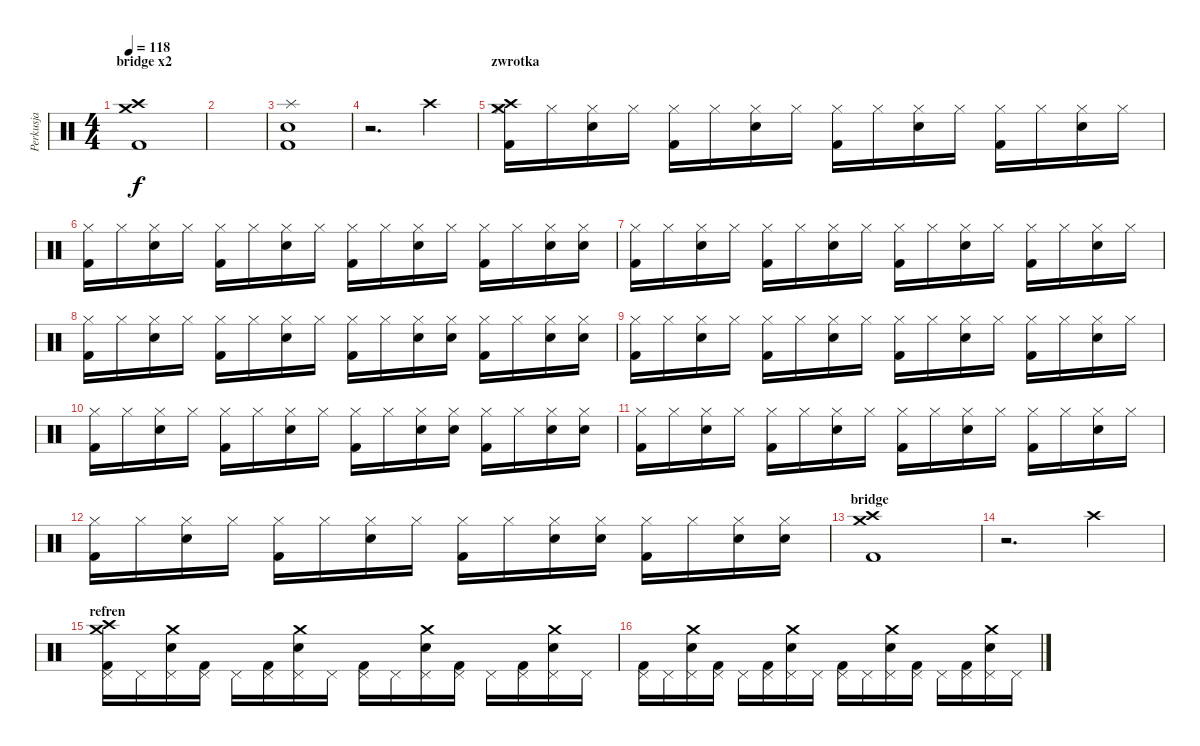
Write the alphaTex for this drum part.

\track ("Perkusja" "Perkusja") {instrument percussion}
\staff {score}
\articulation defaults
\ts (4 4)
\section ("" "bridge x2")
\tempo 118
\clef neutral
\ks c
("Crash medium (hit)" "Crash high (hit)" "Kick (hit) 2").1{dy f} |
|
("Splash (hit)" "Snare (hit) 2" "Kick (hit) 2").1 |
r.2{d} "Crash high (hit)".4 |
\section ("" "zwrotka")
("Crash medium (hit)" "Crash high (hit)" "Kick (hit) 2" "Hi-Hat (closed)").16 "Hi-Hat (closed)".16 ("Electric Snare (hit)" "Hi-Hat (closed)").16 "Hi-Hat (closed)".16 ("Kick (hit) 2" "Hi-Hat (closed)").16 "Hi-Hat (closed)".16 ("Electric Snare (hit)" "Hi-Hat (closed)").16 "Hi-Hat (closed)".16 ("Kick (hit) 2" "Hi-Hat (closed)").16 "Hi-Hat (closed)".16 ("Electric Snare (hit)" "Hi-Hat (closed)").16 "Hi-Hat (closed)".16 ("Kick (hit) 2" "Hi-Hat (closed)").16 "Hi-Hat (closed)".16 ("Electric Snare (hit)" "Hi-Hat (closed)").16 "Hi-Hat (closed)".16 |
("Kick (hit) 2" "Hi-Hat (closed)").16 "Hi-Hat (closed)".16 ("Electric Snare (hit)" "Hi-Hat (closed)").16 "Hi-Hat (closed)".16 ("Kick (hit) 2" "Hi-Hat (closed)").16 "Hi-Hat (closed)".16 ("Electric Snare (hit)" "Hi-Hat (closed)").16 "Hi-Hat (closed)".16 ("Kick (hit) 2" "Hi-Hat (closed)").16 "Hi-Hat (closed)".16 ("Electric Snare (hit)" "Hi-Hat (closed)").16 "Hi-Hat (closed)".16 ("Kick (hit) 2" "Hi-Hat (closed)").16 "Hi-Hat (closed)".16 ("Electric Snare (hit)" "Hi-Hat (closed)").16 ("Electric Snare (hit)" "Hi-Hat (closed)").16 |
("Kick (hit) 2" "Hi-Hat (closed)").16 "Hi-Hat (closed)".16 ("Electric Snare (hit)" "Hi-Hat (closed)").16 "Hi-Hat (closed)".16 ("Kick (hit) 2" "Hi-Hat (closed)").16 "Hi-Hat (closed)".16 ("Electric Snare (hit)" "Hi-Hat (closed)").16 "Hi-Hat (closed)".16 ("Kick (hit) 2" "Hi-Hat (closed)").16 "Hi-Hat (closed)".16 ("Electric Snare (hit)" "Hi-Hat (closed)").16 "Hi-Hat (closed)".16 ("Kick (hit) 2" "Hi-Hat (closed)").16 "Hi-Hat (closed)".16 ("Electric Snare (hit)" "Hi-Hat (closed)").16 "Hi-Hat (closed)".16 |
("Kick (hit) 2" "Hi-Hat (closed)").16 "Hi-Hat (closed)".16 ("Electric Snare (hit)" "Hi-Hat (closed)").16 "Hi-Hat (closed)".16 ("Kick (hit) 2" "Hi-Hat (closed)").16 "Hi-Hat (closed)".16 ("Electric Snare (hit)" "Hi-Hat (closed)").16 "Hi-Hat (closed)".16 ("Kick (hit) 2" "Hi-Hat (closed)").16 "Hi-Hat (closed)".16 ("Electric Snare (hit)" "Hi-Hat (closed)").16 ("Electric Snare (hit)" "Hi-Hat (closed)").16 ("Kick (hit) 2" "Hi-Hat (closed)").16 "Hi-Hat (closed)".16 ("Electric Snare (hit)" "Hi-Hat (closed)").16 ("Electric Snare (hit)" "Hi-Hat (closed)").16 |
("Kick (hit) 2" "Hi-Hat (closed)").16 "Hi-Hat (closed)".16 ("Electric Snare (hit)" "Hi-Hat (closed)").16 "Hi-Hat (closed)".16 ("Kick (hit) 2" "Hi-Hat (closed)").16 "Hi-Hat (closed)".16 ("Electric Snare (hit)" "Hi-Hat (closed)").16 "Hi-Hat (closed)".16 ("Kick (hit) 2" "Hi-Hat (closed)").16 "Hi-Hat (closed)".16 ("Electric Snare (hit)" "Hi-Hat (closed)").16 "Hi-Hat (closed)".16 ("Kick (hit) 2" "Hi-Hat (closed)").16 "Hi-Hat (closed)".16 ("Electric Snare (hit)" "Hi-Hat (closed)").16 "Hi-Hat (closed)".16 |
("Kick (hit) 2" "Hi-Hat (closed)").16 "Hi-Hat (closed)".16 ("Electric Snare (hit)" "Hi-Hat (closed)").16 "Hi-Hat (closed)".16 ("Kick (hit) 2" "Hi-Hat (closed)").16 "Hi-Hat (closed)".16 ("Electric Snare (hit)" "Hi-Hat (closed)").16 "Hi-Hat (closed)".16 ("Kick (hit) 2" "Hi-Hat (closed)").16 "Hi-Hat (closed)".16 ("Electric Snare (hit)" "Hi-Hat (closed)").16 ("Electric Snare (hit)" "Hi-Hat (closed)").16 ("Kick (hit) 2" "Hi-Hat (closed)").16 "Hi-Hat (closed)".16 ("Electric Snare (hit)" "Hi-Hat (closed)").16 ("Electric Snare (hit)" "Hi-Hat (closed)").16 |
("Kick (hit) 2" "Hi-Hat (closed)").16 "Hi-Hat (closed)".16 ("Electric Snare (hit)" "Hi-Hat (closed)").16 "Hi-Hat (closed)".16 ("Kick (hit) 2" "Hi-Hat (closed)").16 "Hi-Hat (closed)".16 ("Electric Snare (hit)" "Hi-Hat (closed)").16 "Hi-Hat (closed)".16 ("Kick (hit) 2" "Hi-Hat (closed)").16 "Hi-Hat (closed)".16 ("Electric Snare (hit)" "Hi-Hat (closed)").16 "Hi-Hat (closed)".16 ("Kick (hit) 2" "Hi-Hat (closed)").16 "Hi-Hat (closed)".16 ("Electric Snare (hit)" "Hi-Hat (closed)").16 "Hi-Hat (closed)".16 |
("Kick (hit) 2" "Hi-Hat (closed)").16 "Hi-Hat (closed)".16 ("Electric Snare (hit)" "Hi-Hat (closed)").16 "Hi-Hat (closed)".16 ("Kick (hit) 2" "Hi-Hat (closed)").16 "Hi-Hat (closed)".16 ("Electric Snare (hit)" "Hi-Hat (closed)").16 "Hi-Hat (closed)".16 ("Kick (hit) 2" "Hi-Hat (closed)").16 "Hi-Hat (closed)".16 ("Electric Snare (hit)" "Hi-Hat (closed)").16 ("Electric Snare (hit)" "Hi-Hat (closed)").16 ("Kick (hit) 2" "Hi-Hat (closed)").16 "Hi-Hat (closed)".16 ("Electric Snare (hit)" "Hi-Hat (closed)").16 ("Electric Snare (hit)" "Hi-Hat (closed)").16 |
\section ("" "bridge")
("Crash medium (hit)" "Crash high (hit)" "Kick (hit) 2").1 |
r.2{d} "Crash high (hit)".4 |
\section ("" "refren")
("Crash medium (hit)" "Crash high (hit)" "Kick (hit) 2" "Pedal Hi-Hat (hit)").16 "Pedal Hi-Hat (hit)".16 ("Electric Snare (hit)" "Crash medium (hit)" "Pedal Hi-Hat (hit)").16 ("Kick (hit) 2" "Pedal Hi-Hat (hit)").16 "Pedal Hi-Hat (hit)".16 ("Kick (hit) 2" "Pedal Hi-Hat (hit)").16 ("Electric Snare (hit)" "Crash medium (hit)" "Pedal Hi-Hat (hit)").16 "Pedal Hi-Hat (hit)".16 ("Kick (hit) 2" "Pedal Hi-Hat (hit)").16 "Pedal Hi-Hat (hit)".16 ("Electric Snare (hit)" "Crash medium (hit)" "Pedal Hi-Hat (hit)").16 ("Kick (hit) 2" "Pedal Hi-Hat (hit)").16 "Pedal Hi-Hat (hit)".16 ("Kick (hit) 2" "Pedal Hi-Hat (hit)").16 ("Electric Snare (hit)" "Crash medium (hit)" "Pedal Hi-Hat (hit)").16 "Pedal Hi-Hat (hit)".16 |
("Kick (hit) 2" "Pedal Hi-Hat (hit)").16 "Pedal Hi-Hat (hit)".16 ("Electric Snare (hit)" "Crash medium (hit)" "Pedal Hi-Hat (hit)").16 ("Kick (hit) 2" "Pedal Hi-Hat (hit)").16 "Pedal Hi-Hat (hit)".16 ("Kick (hit) 2" "Pedal Hi-Hat (hit)").16 ("Electric Snare (hit)" "Crash medium (hit)" "Pedal Hi-Hat (hit)").16 "Pedal Hi-Hat (hit)".16 ("Kick (hit) 2" "Pedal Hi-Hat (hit)").16 "Pedal Hi-Hat (hit)".16 ("Electric Snare (hit)" "Crash medium (hit)" "Pedal Hi-Hat (hit)").16 ("Kick (hit) 2" "Pedal Hi-Hat (hit)").16 "Pedal Hi-Hat (hit)".16 ("Kick (hit) 2" "Pedal Hi-Hat (hit)").16 ("Electric Snare (hit)" "Crash medium (hit)" "Pedal Hi-Hat (hit)").16 "Pedal Hi-Hat (hit)".16
